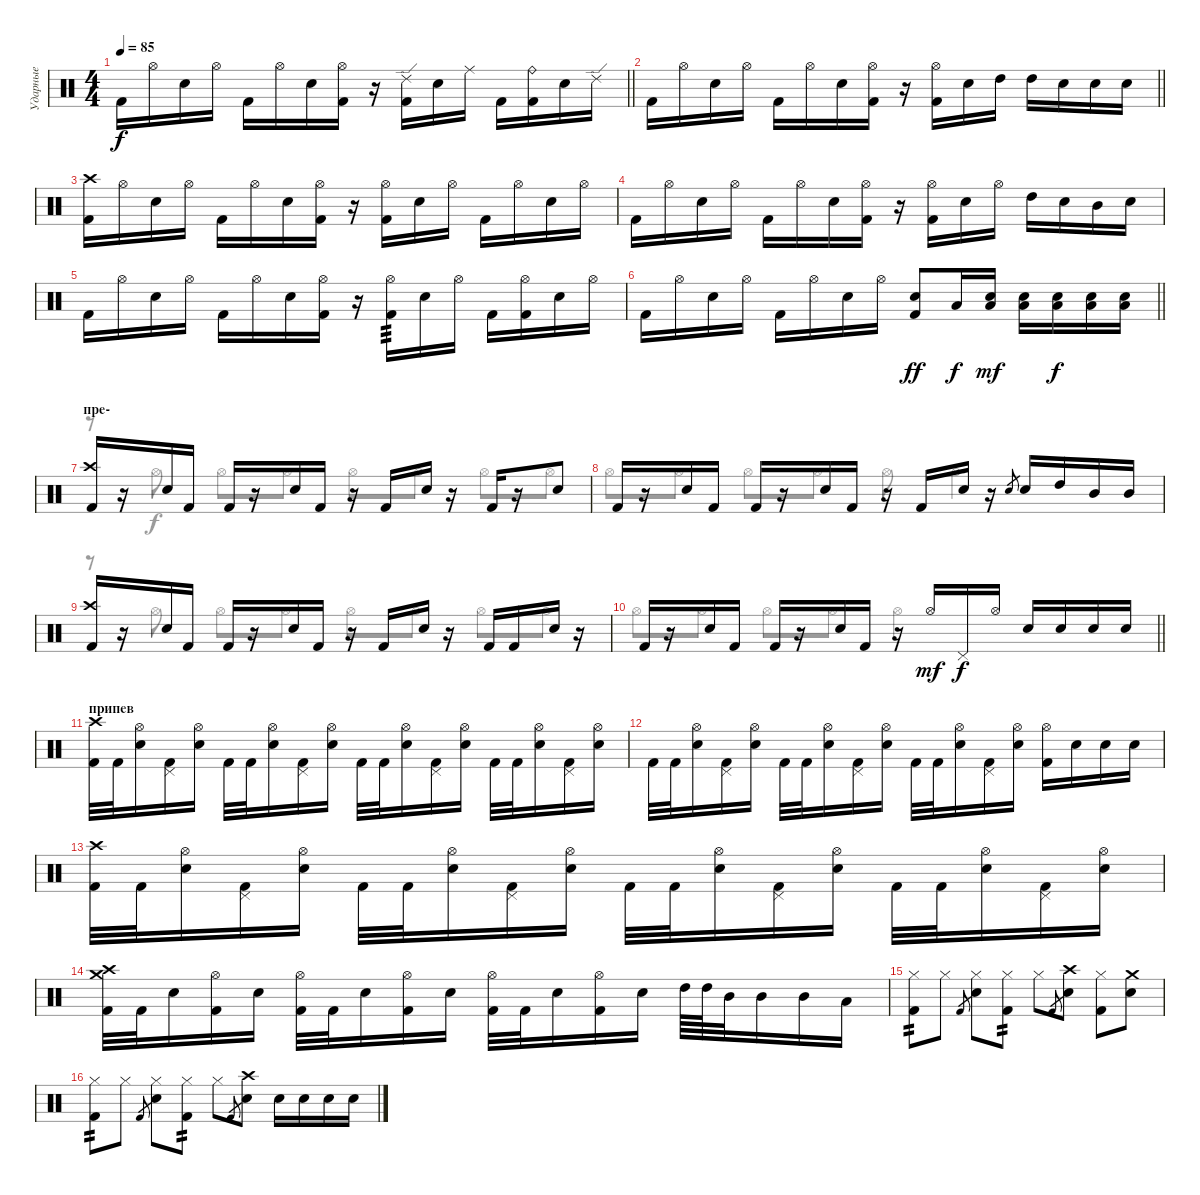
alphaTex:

\track ("Ударные" "Ударные") {instrument percussion}
\staff {score}
\articulation defaults
\voice
\ts (4 4)
\tempo 85
\clef neutral
\barLineRight lightlight
\ks c "Kick (hit) 2".16{dy f} "Hi-Hat (open)".16 "Electric Snare (hit)".16 "Hi-Hat (open)".16 "Kick (hit) 2".16 "Hi-Hat (open)".16 "Electric Snare (hit)".16
("Kick (hit) 2" "Hi-Hat (open)").16 r.16 ("Kick (hit) 2" "Ride (edge) 2").16 "Electric Snare (hit)".16 "Ride (middle)".16 "Kick (hit) 2".16 ("Kick (hit) 2" "Ride (bell)").16 "Electric Snare (hit)".16 "Ride (edge) 2".16 |
\barLineRight lightlight "Kick (hit) 2".16 "Hi-Hat (open)".16 "Electric Snare (hit)".16 "Hi-Hat (open)".16 "Kick (hit) 2".16 "Hi-Hat (open)".16 "Electric Snare (hit)".16
("Kick (hit) 2" "Hi-Hat (open)").16 r.16 ("Kick (hit) 2" "Hi-Hat (open)").16 "Electric Snare (hit)".16 "High Tom (hit)".16 "High Tom (hit)".16 "Electric Snare (hit)".16 "Electric Snare (hit)".16 "Electric Snare (hit)".16 |
("Kick (hit) 2" "Crash high (hit)").16 "Hi-Hat (open)".16 "Electric Snare (hit)".16 "Hi-Hat (open)".16 "Kick (hit) 2".16 "Hi-Hat (open)".16 "Electric Snare (hit)".16 ("Kick (hit) 2" "Hi-Hat (open)").16 r.16 ("Kick (hit) 2" "Hi-Hat (open)").16 "Electric Snare (hit)".16 "Hi-Hat (open)".16 "Kick (hit) 2".16 "Hi-Hat (open)".16 "Electric Snare (hit)".16 "Hi-Hat (open)".16 |
"Kick (hit) 2".16 "Hi-Hat (open)".16 "Electric Snare (hit)".16 "Hi-Hat (open)".16 "Kick (hit) 2".16 "Hi-Hat (open)".16 "Electric Snare (hit)".16 ("Kick (hit) 2" "Hi-Hat (open)").16 r.16 ("Kick (hit) 2" "Hi-Hat (open)").16 "Electric Snare (hit)".16 "Hi-Hat (open)".16 "High Tom (hit)".16 "Electric Snare (hit)".16 "Mid Tom (hit)".16 "Electric Snare (hit)".16 |
"Kick (hit) 2".16 "Hi-Hat (open)".16 "Electric Snare (hit)".16 "Hi-Hat (open)".16 "Kick (hit) 2".16 "Hi-Hat (open)".16 "Electric Snare (hit)".16 ("Kick (hit) 2" "Hi-Hat (open)").16 r.16 ("Kick (hit) 2" "Hi-Hat (open)").16{tp 3} "Electric Snare (hit)".16 "Hi-Hat (open)".16 "Kick (hit) 2".16 ("Kick (hit) 2" "Hi-Hat (open)").16 "Electric Snare (hit)".16 "Hi-Hat (open)".16 |
\barLineRight lightlight "Kick (hit) 2".16 "Hi-Hat (open)".16 "Electric Snare (hit)".16 "Hi-Hat (open)".16 "Kick (hit) 2".16 "Hi-Hat (open)".16 "Electric Snare (hit)".16 "Hi-Hat (open)".16
("Kick (hit) 2" "Electric Snare (hit)").8{dy ff} "Low Floor Tom (hit)".16{dy f} ("Electric Snare (hit)" "Low Floor Tom (hit)").16{dy mf} ("Electric Snare (hit)" "Low Floor Tom (hit)").16 ("Electric Snare (hit)" "Low Floor Tom (hit)").16{dy f} ("Electric Snare (hit)" "Low Floor Tom (hit)").16 ("Electric Snare (hit)" "Low Floor Tom (hit)").16 |
\section ("" "пре-")
("Kick (hit) 2" "Crash high (hit)").16 r.16 "Electric Snare (hit)".16 "Kick (hit) 2".16 "Kick (hit) 2".16 r.16 "Electric Snare (hit)".16 "Kick (hit) 2".16 r.16 "Kick (hit) 2".16 "Electric Snare (hit)".16 r.16 "Kick (hit) 2".16 r.16 "Electric Snare (hit)".8 |
"Kick (hit) 2".16 r.16 "Electric Snare (hit)".16 "Kick (hit) 2".16 "Kick (hit) 2".16 r.16 "Electric Snare (hit)".16 "Kick (hit) 2".16 r.16 "Kick (hit) 2".16 "Electric Snare (hit)".16 r.16 "Electric Snare (hit)".8{gr} "Electric Snare (hit)".16 "High Tom (hit)".16 "Mid Tom (hit)".16 "Mid Tom (hit)".16 |
("Kick (hit) 2" "Crash high (hit)").16 r.16 "Electric Snare (hit)".16 "Kick (hit) 2".16 "Kick (hit) 2".16 r.16 "Electric Snare (hit)".16 "Kick (hit) 2".16 r.16 "Kick (hit) 2".16 "Electric Snare (hit)".16 r.16 "Kick (hit) 2".16 "Kick (hit) 2".16 "Electric Snare (hit)".16 r.16 |
\barLineRight lightlight "Kick (hit) 2".16
r.16 "Electric Snare (hit)".16 "Kick (hit) 2".16 "Kick (hit) 2".16 r.16 "Electric Snare (hit)".16 "Kick (hit) 2".16 r.16 "Hi-Hat (open)".16{dy mf} "Pedal Hi-Hat (hit)".16{dy f} "Hi-Hat (open)".16 "Electric Snare (hit)".16 "Electric Snare (hit)".16 "Electric Snare (hit)".16 "Electric Snare (hit)".16 |
\section ("" "припев")
("Kick (hit) 2" "Crash high (hit)").32 "Kick (hit) 2".32 ("Electric Snare (hit)" "Hi-Hat (open)").16 ("Kick (hit) 2" "Pedal Hi-Hat (hit)").16 ("Electric Snare (hit)" "Hi-Hat (open)").16 "Kick (hit) 2".32 "Kick (hit) 2".32 ("Electric Snare (hit)" "Hi-Hat (open)").16 ("Kick (hit) 2" "Pedal Hi-Hat (hit)").16 ("Electric Snare (hit)" "Hi-Hat (open)").16 "Kick (hit) 2".32 "Kick (hit) 2".32 ("Electric Snare (hit)" "Hi-Hat (open)").16 ("Kick (hit) 2" "Pedal Hi-Hat (hit)").16 ("Electric Snare (hit)" "Hi-Hat (open)").16 "Kick (hit) 2".32 "Kick (hit) 2".32 ("Electric Snare (hit)" "Hi-Hat (open)").16 ("Kick (hit) 2" "Pedal Hi-Hat (hit)").16 ("Electric Snare (hit)" "Hi-Hat (open)").16 |
"Kick (hit) 2".32 "Kick (hit) 2".32 ("Electric Snare (hit)" "Hi-Hat (open)").16 ("Kick (hit) 2" "Pedal Hi-Hat (hit)").16 ("Electric Snare (hit)" "Hi-Hat (open)").16 "Kick (hit) 2".32 "Kick (hit) 2".32 ("Electric Snare (hit)" "Hi-Hat (open)").16 ("Kick (hit) 2" "Pedal Hi-Hat (hit)").16 ("Electric Snare (hit)" "Hi-Hat (open)").16 "Kick (hit) 2".32 "Kick (hit) 2".32 ("Electric Snare (hit)" "Hi-Hat (open)").16 ("Kick (hit) 2" "Pedal Hi-Hat (hit)").16 ("Electric Snare (hit)" "Hi-Hat (open)").16 ("Kick (hit) 2" "Hi-Hat (open)").16 "Electric Snare (hit)".16 "Electric Snare (hit)".16 "Electric Snare (hit)".16 |
("Kick (hit) 2" "Crash high (hit)").32 "Kick (hit) 2".32 ("Electric Snare (hit)" "Hi-Hat (open)").16 ("Kick (hit) 2" "Pedal Hi-Hat (hit)").16 ("Electric Snare (hit)" "Hi-Hat (open)").16 "Kick (hit) 2".32 "Kick (hit) 2".32 ("Electric Snare (hit)" "Hi-Hat (open)").16 ("Kick (hit) 2" "Pedal Hi-Hat (hit)").16 ("Electric Snare (hit)" "Hi-Hat (open)").16 "Kick (hit) 2".32 "Kick (hit) 2".32 ("Electric Snare (hit)" "Hi-Hat (open)").16 ("Kick (hit) 2" "Pedal Hi-Hat (hit)").16 ("Electric Snare (hit)" "Hi-Hat (open)").16 "Kick (hit) 2".32 "Kick (hit) 2".32 ("Electric Snare (hit)" "Hi-Hat (open)").16 ("Kick (hit) 2" "Pedal Hi-Hat (hit)").16 ("Electric Snare (hit)" "Hi-Hat (open)").16 |
("Kick (hit) 2" "Crash high (hit)" "Crash medium (hit)").32 "Kick (hit) 2".32 "Electric Snare (hit)".16 ("Kick (hit) 2" "Hi-Hat (open)").16 "Electric Snare (hit)".16 ("Kick (hit) 2" "Hi-Hat (open)").32 "Kick (hit) 2".32 "Electric Snare (hit)".16 ("Kick (hit) 2" "Hi-Hat (open)").16 "Electric Snare (hit)".16 ("Kick (hit) 2" "Hi-Hat (open)").32 "Kick (hit) 2".32 "Electric Snare (hit)".16 ("Kick (hit) 2" "Hi-Hat (open)").16 "Electric Snare (hit)".16 "High Tom (hit)".64 "High Tom (hit)".64 "Mid Tom (hit)".32 "Mid Tom (hit)".16 "Mid Tom (hit)".16 "Low Floor Tom (hit)".16 |
("Kick (hit) 2" "Hi-Hat (closed)").8{tp 2} "Hi-Hat (closed)".8 "Kick (hit) 2".8{gr} ("Electric Snare (hit)" "Hi-Hat (closed)").8 ("Kick (hit) 2" "Hi-Hat (closed)").8{tp 2} "Hi-Hat (closed)".8 "Kick (hit) 2".8{gr} ("Electric Snare (hit)" "Crash high (hit)").8 ("Kick (hit) 2" "Hi-Hat (closed)").8 ("Electric Snare (hit)" "Crash medium (hit)").8 |
("Kick (hit) 2" "Hi-Hat (closed)").8{tp 2} "Hi-Hat (closed)".8 "Kick (hit) 2".8{gr} ("Electric Snare (hit)" "Hi-Hat (closed)").8 ("Kick (hit) 2" "Hi-Hat (closed)").8{tp 2} "Hi-Hat (closed)".8 "Kick (hit) 2".8{gr} ("Electric Snare (hit)" "Crash high (hit)").8 "Electric Snare (hit)".16 "Electric Snare (hit)".16 "Electric Snare (hit)".16 "Electric Snare (hit)".16
\voice
\clef neutral
\ottava regular
\simile none
\barLineRight lightlight
\ks c
|
\barLineRight lightlight
|
|
|
|
\barLineRight lightlight
|
r.8 "Hi-Hat (open)".8 "Hi-Hat (open)".8 "Hi-Hat (open)".8 "Hi-Hat (open)".8 "Hi-Hat (open)".8 "Hi-Hat (open)".8 "Hi-Hat (open)".8 |
"Hi-Hat (open)".8 "Hi-Hat (open)".8 "Hi-Hat (open)".8 "Hi-Hat (open)".8 "Hi-Hat (open)".8 "Hi-Hat (open)".4{d} |
r.8 "Hi-Hat (open)".8 "Hi-Hat (open)".8 "Hi-Hat (open)".8 "Hi-Hat (open)".8 "Hi-Hat (open)".8 "Hi-Hat (open)".8 "Hi-Hat (open)".8 |
\barLineRight lightlight "Hi-Hat (open)".8 "Hi-Hat (open)".8 "Hi-Hat (open)".8 "Hi-Hat (open)".8 "Hi-Hat (open)".2
|
|
|
|
|
|
